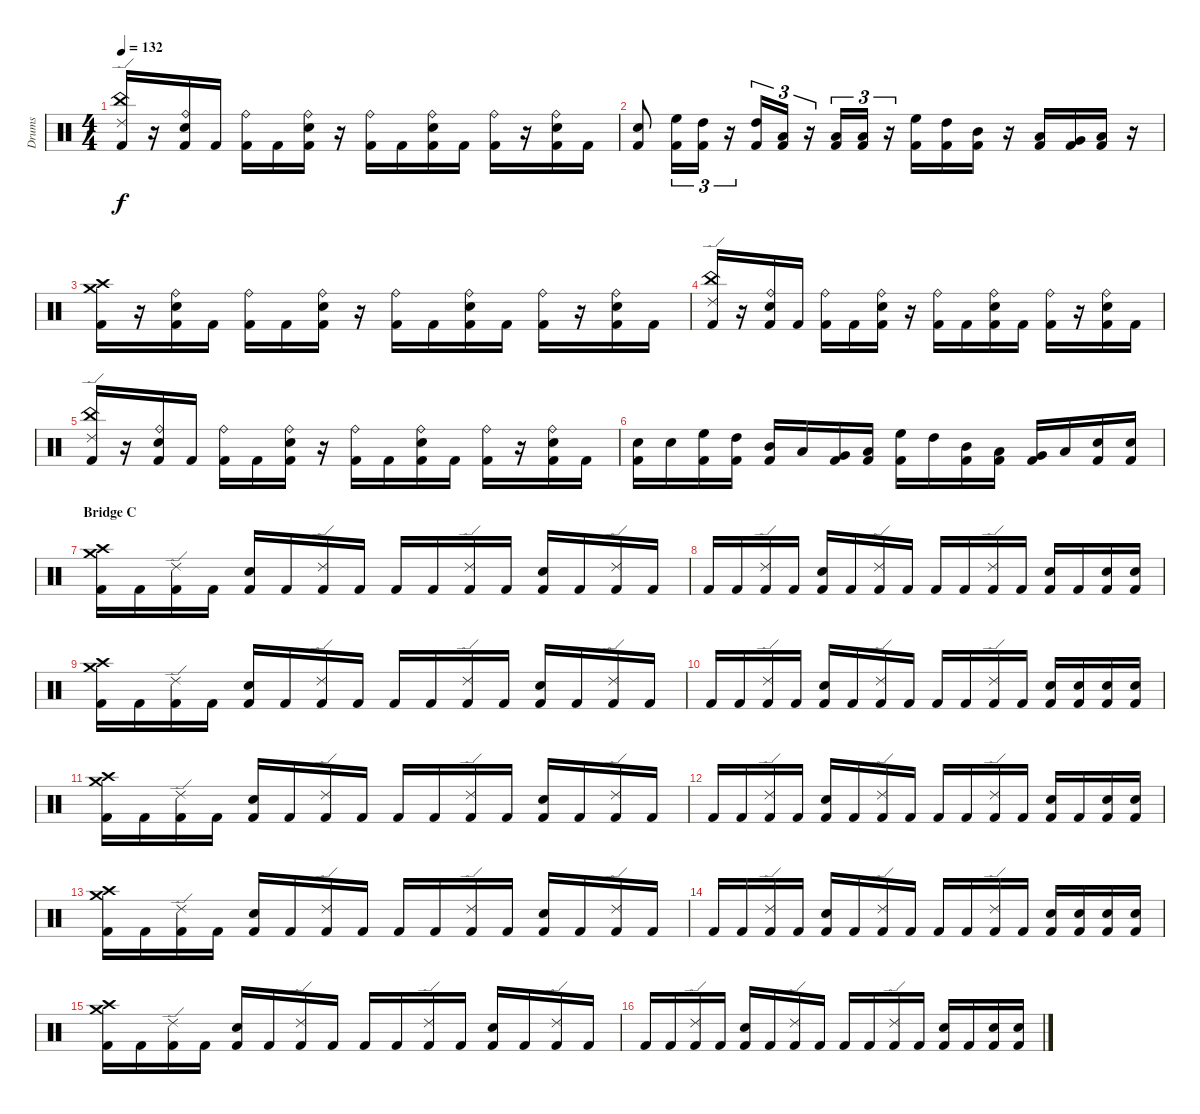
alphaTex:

\track ("Drums" "Drums") {instrument percussion}
\staff {score}
\articulation defaults
\ts (4 4)
\tempo 132
\clef neutral
\ks c
("Ride (edge) 2" "China (hit)" "Kick (hit) 2").16{dy f} r.16 ("Ride (bell)" "Electric Snare (hit)" "Kick (hit) 2").16 "Kick (hit) 2".16 ("Ride (bell)" "Kick (hit) 2").16 "Kick (hit) 2".16 ("Ride (bell)" "Electric Snare (hit)" "Kick (hit) 2").16 r.16 ("Ride (bell)" "Kick (hit) 2").16 "Kick (hit) 2".16 ("Ride (bell)" "Electric Snare (hit)" "Kick (hit) 2").16 "Kick (hit) 2".16 ("Ride (bell)" "Kick (hit) 2").16 r.16 ("Ride (bell)" "Electric Snare (hit)" "Kick (hit) 2").16 "Kick (hit) 2".16 |
("Electric Snare (hit)" "Kick (hit) 2").8 ("High Floor Tom (hit)" "Kick (hit) 2").16{tu (3 2)} ("High Tom (hit)" "Kick (hit) 2").16{tu (3 2)} r.16{tu (3 2)} ("High Tom (hit)" "Kick (hit) 2").16{tu (3 2)} ("Low Tom (hit)" "Kick (hit) 2").16{tu (3 2)} r.16{tu (3 2)} ("Low Tom (hit)" "Kick (hit) 2").16{tu (3 2)} ("Low Floor Tom (hit)" "Kick (hit) 2").16{tu (3 2)} r.16{tu (3 2)} ("High Floor Tom (hit)" "Kick (hit) 2").16 ("High Tom (hit)" "Kick (hit) 2").16 ("Mid Tom (hit)" "Kick (hit) 2").16 r.16 ("Low Tom (hit)" "Kick (hit) 2").16 ("Very Low Tom (hit)" "Kick (hit) 2").16 ("Low Floor Tom (hit)" "Kick (hit) 2").16 r.16 |
("Crash medium (hit)" "Crash high (hit)" "Kick (hit) 2").16 r.16 ("Ride (bell)" "Electric Snare (hit)" "Kick (hit) 2").16 "Kick (hit) 2".16 ("Ride (bell)" "Kick (hit) 2").16 "Kick (hit) 2".16 ("Ride (bell)" "Electric Snare (hit)" "Kick (hit) 2").16 r.16 ("Ride (bell)" "Kick (hit) 2").16 "Kick (hit) 2".16 ("Ride (bell)" "Electric Snare (hit)" "Kick (hit) 2").16 "Kick (hit) 2".16 ("Ride (bell)" "Kick (hit) 2").16 r.16 ("Ride (bell)" "Electric Snare (hit)" "Kick (hit) 2").16 "Kick (hit) 2".16 |
("Ride (edge) 2" "China (hit)" "Kick (hit) 2").16 r.16 ("Ride (bell)" "Electric Snare (hit)" "Kick (hit) 2").16 "Kick (hit) 2".16 ("Ride (bell)" "Kick (hit) 2").16 "Kick (hit) 2".16 ("Ride (bell)" "Electric Snare (hit)" "Kick (hit) 2").16 r.16 ("Ride (bell)" "Kick (hit) 2").16 "Kick (hit) 2".16 ("Ride (bell)" "Electric Snare (hit)" "Kick (hit) 2").16 "Kick (hit) 2".16 ("Ride (bell)" "Kick (hit) 2").16 r.16 ("Ride (bell)" "Electric Snare (hit)" "Kick (hit) 2").16 "Kick (hit) 2".16 |
("Ride (edge) 2" "China (hit)" "Kick (hit) 2").16 r.16 ("Ride (bell)" "Electric Snare (hit)" "Kick (hit) 2").16 "Kick (hit) 2".16 ("Ride (bell)" "Kick (hit) 2").16 "Kick (hit) 2".16 ("Ride (bell)" "Electric Snare (hit)" "Kick (hit) 2").16 r.16 ("Ride (bell)" "Kick (hit) 2").16 "Kick (hit) 2".16 ("Ride (bell)" "Electric Snare (hit)" "Kick (hit) 2").16 "Kick (hit) 2".16 ("Ride (bell)" "Kick (hit) 2").16 r.16 ("Ride (bell)" "Electric Snare (hit)" "Kick (hit) 2").16 "Kick (hit) 2".16 |
("Electric Snare (hit)" "Kick (hit) 2").16 "Electric Snare (hit)".16 ("High Floor Tom (hit)" "Kick (hit) 2").16 ("High Tom (hit)" "Kick (hit) 2").16 ("Mid Tom (hit)" "Kick (hit) 2").16 "Low Tom (hit)".16 ("Very Low Tom (hit)" "Kick (hit) 2").16 ("Low Floor Tom (hit)" "Kick (hit) 2").16 ("High Floor Tom (hit)" "Kick (hit) 2").16 "High Tom (hit)".16 ("Mid Tom (hit)" "Kick (hit) 2").16 ("Low Tom (hit)" "Kick (hit) 2").16 ("Very Low Tom (hit)" "Kick (hit) 2").16 "Low Floor Tom (hit)".16 ("Electric Snare (hit)" "Kick (hit) 2").16 ("Electric Snare (hit)" "Kick (hit) 2").16 |
\section ("" "Bridge C")
("Crash medium (hit)" "Crash high (hit)" "Kick (hit) 2").16 "Kick (hit) 2".16 ("Ride (edge) 2" "Kick (hit) 2").16 "Kick (hit) 2".16 ("Electric Snare (hit)" "Kick (hit) 2").16 "Kick (hit) 2".16 ("Ride (edge) 2" "Kick (hit) 2").16 "Kick (hit) 2".16 "Kick (hit) 2".16 "Kick (hit) 2".16 ("Ride (edge) 2" "Kick (hit) 2").16 "Kick (hit) 2".16 ("Electric Snare (hit)" "Kick (hit) 2").16 "Kick (hit) 2".16 ("Ride (edge) 2" "Kick (hit) 2").16 "Kick (hit) 2".16 |
"Kick (hit) 2".16 "Kick (hit) 2".16 ("Ride (edge) 2" "Kick (hit) 2").16 "Kick (hit) 2".16 ("Electric Snare (hit)" "Kick (hit) 2").16 "Kick (hit) 2".16 ("Ride (edge) 2" "Kick (hit) 2").16 "Kick (hit) 2".16 "Kick (hit) 2".16 "Kick (hit) 2".16 ("Ride (edge) 2" "Kick (hit) 2").16 "Kick (hit) 2".16 ("Electric Snare (hit)" "Kick (hit) 2").16 "Kick (hit) 2".16 ("Electric Snare (hit)" "Kick (hit) 2").16 ("Electric Snare (hit)" "Kick (hit) 2").16 |
("Crash medium (hit)" "Crash high (hit)" "Kick (hit) 2").16 "Kick (hit) 2".16 ("Ride (edge) 2" "Kick (hit) 2").16 "Kick (hit) 2".16 ("Electric Snare (hit)" "Kick (hit) 2").16 "Kick (hit) 2".16 ("Ride (edge) 2" "Kick (hit) 2").16 "Kick (hit) 2".16 "Kick (hit) 2".16 "Kick (hit) 2".16 ("Ride (edge) 2" "Kick (hit) 2").16 "Kick (hit) 2".16 ("Electric Snare (hit)" "Kick (hit) 2").16 "Kick (hit) 2".16 ("Ride (edge) 2" "Kick (hit) 2").16 "Kick (hit) 2".16 |
"Kick (hit) 2".16 "Kick (hit) 2".16 ("Ride (edge) 2" "Kick (hit) 2").16 "Kick (hit) 2".16 ("Electric Snare (hit)" "Kick (hit) 2").16 "Kick (hit) 2".16 ("Ride (edge) 2" "Kick (hit) 2").16 "Kick (hit) 2".16 "Kick (hit) 2".16 "Kick (hit) 2".16 ("Ride (edge) 2" "Kick (hit) 2").16 "Kick (hit) 2".16 ("Electric Snare (hit)" "Kick (hit) 2").16 ("Electric Snare (hit)" "Kick (hit) 2").16 ("Electric Snare (hit)" "Kick (hit) 2").16 ("Electric Snare (hit)" "Kick (hit) 2").16 |
("Crash medium (hit)" "Crash high (hit)" "Kick (hit) 2").16 "Kick (hit) 2".16 ("Ride (edge) 2" "Kick (hit) 2").16 "Kick (hit) 2".16 ("Electric Snare (hit)" "Kick (hit) 2").16 "Kick (hit) 2".16 ("Ride (edge) 2" "Kick (hit) 2").16 "Kick (hit) 2".16 "Kick (hit) 2".16 "Kick (hit) 2".16 ("Ride (edge) 2" "Kick (hit) 2").16 "Kick (hit) 2".16 ("Electric Snare (hit)" "Kick (hit) 2").16 "Kick (hit) 2".16 ("Ride (edge) 2" "Kick (hit) 2").16 "Kick (hit) 2".16 |
"Kick (hit) 2".16 "Kick (hit) 2".16 ("Ride (edge) 2" "Kick (hit) 2").16 "Kick (hit) 2".16 ("Electric Snare (hit)" "Kick (hit) 2").16 "Kick (hit) 2".16 ("Ride (edge) 2" "Kick (hit) 2").16 "Kick (hit) 2".16 "Kick (hit) 2".16 "Kick (hit) 2".16 ("Ride (edge) 2" "Kick (hit) 2").16 "Kick (hit) 2".16 ("Electric Snare (hit)" "Kick (hit) 2").16 "Kick (hit) 2".16 ("Electric Snare (hit)" "Kick (hit) 2").16 ("Electric Snare (hit)" "Kick (hit) 2").16 |
("Crash medium (hit)" "Crash high (hit)" "Kick (hit) 2").16 "Kick (hit) 2".16 ("Ride (edge) 2" "Kick (hit) 2").16 "Kick (hit) 2".16 ("Electric Snare (hit)" "Kick (hit) 2").16 "Kick (hit) 2".16 ("Ride (edge) 2" "Kick (hit) 2").16 "Kick (hit) 2".16 "Kick (hit) 2".16 "Kick (hit) 2".16 ("Ride (edge) 2" "Kick (hit) 2").16 "Kick (hit) 2".16 ("Electric Snare (hit)" "Kick (hit) 2").16 "Kick (hit) 2".16 ("Ride (edge) 2" "Kick (hit) 2").16 "Kick (hit) 2".16 |
"Kick (hit) 2".16 "Kick (hit) 2".16 ("Ride (edge) 2" "Kick (hit) 2").16 "Kick (hit) 2".16 ("Electric Snare (hit)" "Kick (hit) 2").16 "Kick (hit) 2".16 ("Ride (edge) 2" "Kick (hit) 2").16 "Kick (hit) 2".16 "Kick (hit) 2".16 "Kick (hit) 2".16 ("Ride (edge) 2" "Kick (hit) 2").16 "Kick (hit) 2".16 ("Electric Snare (hit)" "Kick (hit) 2").16 ("Electric Snare (hit)" "Kick (hit) 2").16 ("Electric Snare (hit)" "Kick (hit) 2").16 ("Electric Snare (hit)" "Kick (hit) 2").16 |
("Crash medium (hit)" "Crash high (hit)" "Kick (hit) 2").16 "Kick (hit) 2".16 ("Ride (edge) 2" "Kick (hit) 2").16 "Kick (hit) 2".16 ("Electric Snare (hit)" "Kick (hit) 2").16 "Kick (hit) 2".16 ("Ride (edge) 2" "Kick (hit) 2").16 "Kick (hit) 2".16 "Kick (hit) 2".16 "Kick (hit) 2".16 ("Ride (edge) 2" "Kick (hit) 2").16 "Kick (hit) 2".16 ("Electric Snare (hit)" "Kick (hit) 2").16 "Kick (hit) 2".16 ("Ride (edge) 2" "Kick (hit) 2").16 "Kick (hit) 2".16 |
"Kick (hit) 2".16 "Kick (hit) 2".16 ("Ride (edge) 2" "Kick (hit) 2").16 "Kick (hit) 2".16 ("Electric Snare (hit)" "Kick (hit) 2").16 "Kick (hit) 2".16 ("Ride (edge) 2" "Kick (hit) 2").16 "Kick (hit) 2".16 "Kick (hit) 2".16 "Kick (hit) 2".16 ("Ride (edge) 2" "Kick (hit) 2").16 "Kick (hit) 2".16 ("Electric Snare (hit)" "Kick (hit) 2").16 "Kick (hit) 2".16 ("Electric Snare (hit)" "Kick (hit) 2").16 ("Electric Snare (hit)" "Kick (hit) 2").16
